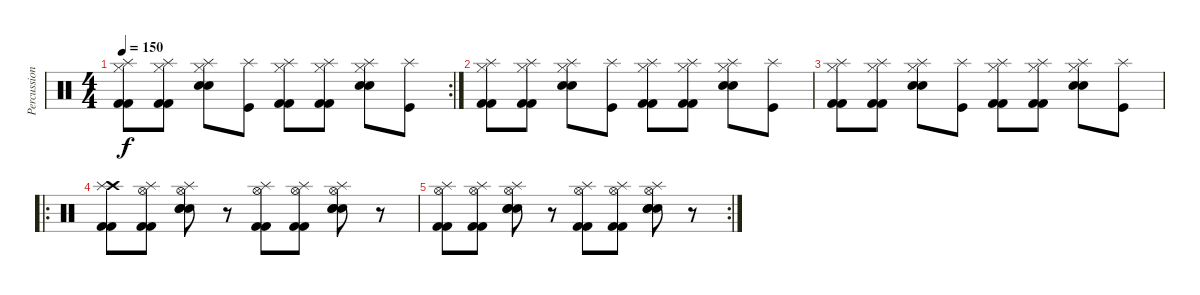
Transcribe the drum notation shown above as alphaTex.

\track ("Percussion" "Percussion") {instrument percussion}
\staff {score}
\articulation defaults
\rc 2
\ts (4 4)
\tempo 150
\clef neutral
\ks c
("Splash (hit)" "Hi-Hat (closed)" "Kick (hit) 2" "Kick (hit) 2").8{dy f} ("Splash (hit)" "Hi-Hat (closed)" "Kick (hit) 2" "Kick (hit) 2").8 ("Splash (hit)" "Hi-Hat (closed)" "Electric Snare (hit)" "Electric Snare (hit)").8 ("Splash (hit)" "Kick (hit)").8 ("Splash (hit)" "Hi-Hat (closed)" "Kick (hit) 2" "Kick (hit) 2").8 ("Splash (hit)" "Hi-Hat (closed)" "Kick (hit) 2" "Kick (hit) 2").8 ("Splash (hit)" "Hi-Hat (closed)" "Electric Snare (hit)" "Electric Snare (hit)").8 ("Splash (hit)" "Kick (hit)").8 |
("Splash (hit)" "Hi-Hat (closed)" "Kick (hit) 2" "Kick (hit) 2").8 ("Splash (hit)" "Hi-Hat (closed)" "Kick (hit) 2" "Kick (hit) 2").8 ("Splash (hit)" "Hi-Hat (closed)" "Electric Snare (hit)" "Electric Snare (hit)").8 ("Splash (hit)" "Kick (hit)").8 ("Splash (hit)" "Hi-Hat (closed)" "Kick (hit) 2" "Kick (hit) 2").8 ("Splash (hit)" "Hi-Hat (closed)" "Kick (hit) 2" "Kick (hit) 2").8 ("Splash (hit)" "Hi-Hat (closed)" "Electric Snare (hit)" "Electric Snare (hit)").8 ("Splash (hit)" "Kick (hit)").8 |
("Splash (hit)" "Hi-Hat (closed)" "Kick (hit) 2" "Kick (hit) 2").8 ("Splash (hit)" "Hi-Hat (closed)" "Kick (hit) 2" "Kick (hit) 2").8 ("Splash (hit)" "Hi-Hat (closed)" "Electric Snare (hit)" "Electric Snare (hit)").8 ("Splash (hit)" "Kick (hit)").8 ("Splash (hit)" "Hi-Hat (closed)" "Kick (hit) 2" "Kick (hit) 2").8 ("Splash (hit)" "Hi-Hat (closed)" "Kick (hit) 2" "Kick (hit) 2").8 ("Splash (hit)" "Hi-Hat (closed)" "Electric Snare (hit)" "Electric Snare (hit)").8 ("Splash (hit)" "Kick (hit)").8 |
\ro
("Crash high (hit)" "Splash (hit)" "Kick (hit) 2" "Kick (hit) 2").8 ("Hi-Hat (open)" "Splash (hit)" "Kick (hit) 2" "Kick (hit) 2").8 ("Electric Snare (hit)" "Hi-Hat (open)" "Splash (hit)" "Electric Snare (hit)" "Hand Clap (hit)").8 r.8 ("Hi-Hat (open)" "Splash (hit)" "Kick (hit) 2" "Kick (hit) 2").8 ("Hi-Hat (open)" "Splash (hit)" "Kick (hit) 2" "Kick (hit) 2").8 ("Electric Snare (hit)" "Hi-Hat (open)" "Splash (hit)" "Electric Snare (hit)" "Hand Clap (hit)").8 r.8 |
\rc 2
("Hi-Hat (open)" "Splash (hit)" "Kick (hit) 2" "Kick (hit) 2").8 ("Hi-Hat (open)" "Splash (hit)" "Kick (hit) 2" "Kick (hit) 2").8 ("Electric Snare (hit)" "Hi-Hat (open)" "Splash (hit)" "Electric Snare (hit)" "Hand Clap (hit)").8 r.8 ("Hi-Hat (open)" "Splash (hit)" "Kick (hit) 2" "Kick (hit) 2").8 ("Hi-Hat (open)" "Splash (hit)" "Kick (hit) 2" "Kick (hit) 2").8 ("Electric Snare (hit)" "Hi-Hat (open)" "Splash (hit)" "Electric Snare (hit)" "Hand Clap (hit)").8 r.8
